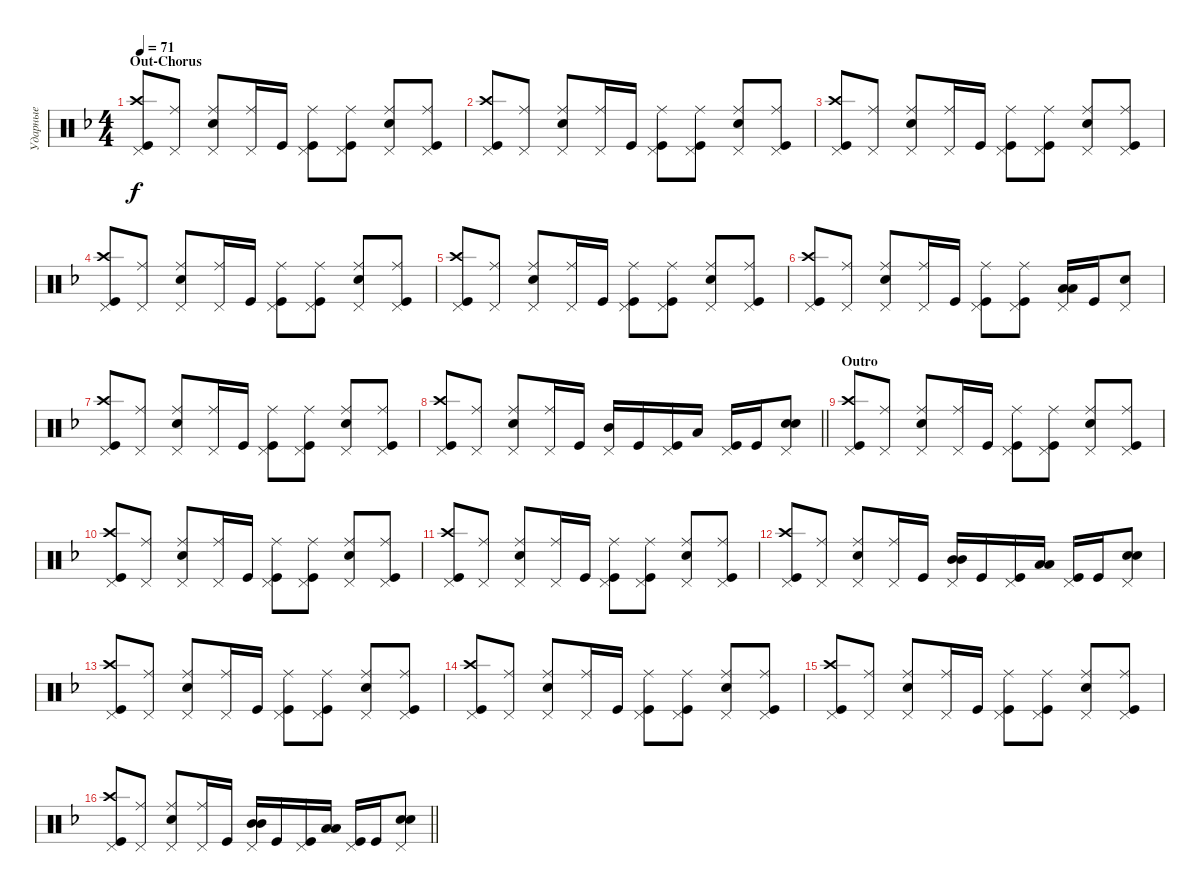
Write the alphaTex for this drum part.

\track ("Ударные" "Ударные") {instrument percussion}
\staff {score}
\articulation defaults
\ts (4 4)
\section ("" "Out-Chorus")
\tempo 71
\clef neutral
\ks dminor
("Kick (hit)" "Crash high (hit)" "Pedal Hi-Hat (hit)").8{dy f} ("Pedal Hi-Hat (hit)" "Ride (middle)").8 ("Snare (hit) 2" "Pedal Hi-Hat (hit)" "Ride (middle)").8 ("Pedal Hi-Hat (hit)" "Ride (middle)").16 "Kick (hit)".16 ("Pedal Hi-Hat (hit)" "Kick (hit)" "Ride (middle)").8 ("Pedal Hi-Hat (hit)" "Kick (hit)" "Ride (middle)").8 ("Pedal Hi-Hat (hit)" "Snare (hit) 2" "Ride (middle)").8 ("Pedal Hi-Hat (hit)" "Kick (hit)" "Ride (middle)").8 |
("Kick (hit)" "Crash high (hit)" "Pedal Hi-Hat (hit)").8 ("Pedal Hi-Hat (hit)" "Ride (middle)").8 ("Snare (hit) 2" "Pedal Hi-Hat (hit)" "Ride (middle)").8 ("Pedal Hi-Hat (hit)" "Ride (middle)").16 "Kick (hit)".16 ("Pedal Hi-Hat (hit)" "Kick (hit)" "Ride (middle)").8 ("Pedal Hi-Hat (hit)" "Kick (hit)" "Ride (middle)").8 ("Pedal Hi-Hat (hit)" "Snare (hit) 2" "Ride (middle)").8 ("Pedal Hi-Hat (hit)" "Kick (hit)" "Ride (middle)").8 |
("Kick (hit)" "Crash high (hit)" "Pedal Hi-Hat (hit)").8 ("Pedal Hi-Hat (hit)" "Ride (middle)").8 ("Snare (hit) 2" "Pedal Hi-Hat (hit)" "Ride (middle)").8 ("Pedal Hi-Hat (hit)" "Ride (middle)").16 "Kick (hit)".16 ("Pedal Hi-Hat (hit)" "Kick (hit)" "Ride (middle)").8 ("Pedal Hi-Hat (hit)" "Kick (hit)" "Ride (middle)").8 ("Pedal Hi-Hat (hit)" "Snare (hit) 2" "Ride (middle)").8 ("Pedal Hi-Hat (hit)" "Kick (hit)" "Ride (middle)").8 |
("Kick (hit)" "Crash high (hit)" "Pedal Hi-Hat (hit)").8 ("Pedal Hi-Hat (hit)" "Ride (middle)").8 ("Snare (hit) 2" "Pedal Hi-Hat (hit)" "Ride (middle)").8 ("Pedal Hi-Hat (hit)" "Ride (middle)").16 "Kick (hit)".16 ("Pedal Hi-Hat (hit)" "Kick (hit)" "Ride (middle)").8 ("Pedal Hi-Hat (hit)" "Kick (hit)" "Ride (middle)").8 ("Pedal Hi-Hat (hit)" "Snare (hit) 2" "Ride (middle)").8 ("Pedal Hi-Hat (hit)" "Kick (hit)" "Ride (middle)").8 |
("Kick (hit)" "Crash high (hit)" "Pedal Hi-Hat (hit)").8 ("Pedal Hi-Hat (hit)" "Ride (middle)").8 ("Snare (hit) 2" "Pedal Hi-Hat (hit)" "Ride (middle)").8 ("Pedal Hi-Hat (hit)" "Ride (middle)").16 "Kick (hit)".16 ("Pedal Hi-Hat (hit)" "Kick (hit)" "Ride (middle)").8 ("Pedal Hi-Hat (hit)" "Kick (hit)" "Ride (middle)").8 ("Pedal Hi-Hat (hit)" "Snare (hit) 2" "Ride (middle)").8 ("Pedal Hi-Hat (hit)" "Kick (hit)" "Ride (middle)").8 |
("Kick (hit)" "Crash high (hit)" "Pedal Hi-Hat (hit)").8 ("Pedal Hi-Hat (hit)" "Ride (middle)").8 ("Snare (hit) 2" "Pedal Hi-Hat (hit)" "Ride (middle)").8 ("Pedal Hi-Hat (hit)" "Ride (middle)").16 "Kick (hit)".16 ("Pedal Hi-Hat (hit)" "Kick (hit)" "Ride (middle)").8 ("Pedal Hi-Hat (hit)" "Kick (hit)" "Ride (middle)").8 ("Low Tom (hit)" "Low Tom (hit)" "Pedal Hi-Hat (hit)").16{bd 60} "Kick (hit)".16 ("Snare (hit) 2" "Pedal Hi-Hat (hit)").8 |
("Kick (hit)" "Crash high (hit)" "Pedal Hi-Hat (hit)").8 ("Pedal Hi-Hat (hit)" "Ride (middle)").8 ("Snare (hit) 2" "Pedal Hi-Hat (hit)" "Ride (middle)").8 ("Pedal Hi-Hat (hit)" "Ride (middle)").16 "Kick (hit)".16 ("Pedal Hi-Hat (hit)" "Kick (hit)" "Ride (middle)").8 ("Pedal Hi-Hat (hit)" "Kick (hit)" "Ride (middle)").8 ("Pedal Hi-Hat (hit)" "Snare (hit) 2" "Ride (middle)").8 ("Pedal Hi-Hat (hit)" "Kick (hit)" "Ride (middle)").8 |
\barLineRight lightlight
("Kick (hit)" "Crash high (hit)" "Pedal Hi-Hat (hit)").8 ("Ride (middle)" "Pedal Hi-Hat (hit)").8 ("Snare (hit) 2" "Ride (middle)" "Pedal Hi-Hat (hit)").8 ("Ride (middle)" "Pedal Hi-Hat (hit)").16 "Kick (hit)".16 ("Mid Tom (hit)" "Pedal Hi-Hat (hit)").16 "Kick (hit)".16 ("Kick (hit)" "Pedal Hi-Hat (hit)").16 "Low Tom (hit)".16 ("Kick (hit)" "Pedal Hi-Hat (hit)").16 "Kick (hit)".16 ("Snare (hit) 2" "Snare (hit) 2" "Pedal Hi-Hat (hit)").8{bd 60} |
\section ("" "Outro")
("Kick (hit)" "Crash high (hit)" "Pedal Hi-Hat (hit)").8 ("Pedal Hi-Hat (hit)" "Ride (middle)").8 ("Snare (hit) 2" "Pedal Hi-Hat (hit)" "Ride (middle)").8 ("Pedal Hi-Hat (hit)" "Ride (middle)").16 "Kick (hit)".16 ("Pedal Hi-Hat (hit)" "Kick (hit)" "Ride (middle)").8 ("Pedal Hi-Hat (hit)" "Kick (hit)" "Ride (middle)").8 ("Pedal Hi-Hat (hit)" "Snare (hit) 2" "Ride (middle)").8 ("Pedal Hi-Hat (hit)" "Kick (hit)" "Ride (middle)").8 |
("Kick (hit)" "Crash high (hit)" "Pedal Hi-Hat (hit)").8 ("Pedal Hi-Hat (hit)" "Ride (middle)").8 ("Snare (hit) 2" "Pedal Hi-Hat (hit)" "Ride (middle)").8 ("Pedal Hi-Hat (hit)" "Ride (middle)").16 "Kick (hit)".16 ("Pedal Hi-Hat (hit)" "Kick (hit)" "Ride (middle)").8 ("Pedal Hi-Hat (hit)" "Kick (hit)" "Ride (middle)").8 ("Pedal Hi-Hat (hit)" "Snare (hit) 2" "Ride (middle)").8 ("Pedal Hi-Hat (hit)" "Kick (hit)" "Ride (middle)").8 |
("Kick (hit)" "Crash high (hit)" "Pedal Hi-Hat (hit)").8 ("Pedal Hi-Hat (hit)" "Ride (middle)").8 ("Snare (hit) 2" "Pedal Hi-Hat (hit)" "Ride (middle)").8 ("Pedal Hi-Hat (hit)" "Ride (middle)").16 "Kick (hit)".16 ("Pedal Hi-Hat (hit)" "Kick (hit)" "Ride (middle)").8 ("Pedal Hi-Hat (hit)" "Kick (hit)" "Ride (middle)").8 ("Pedal Hi-Hat (hit)" "Snare (hit) 2" "Ride (middle)").8 ("Pedal Hi-Hat (hit)" "Kick (hit)" "Ride (middle)").8 |
("Kick (hit)" "Crash high (hit)" "Pedal Hi-Hat (hit)").8 ("Pedal Hi-Hat (hit)" "Ride (middle)").8 ("Snare (hit) 2" "Pedal Hi-Hat (hit)" "Ride (middle)").8 ("Pedal Hi-Hat (hit)" "Ride (middle)").16 "Kick (hit)".16 ("Mid Tom (hit)" "Mid Tom (hit)" "Pedal Hi-Hat (hit)").16{bd 60} "Kick (hit)".16 ("Kick (hit)" "Pedal Hi-Hat (hit)").16 ("Low Tom (hit)" "Low Tom (hit)").16{bd 60} ("Kick (hit)" "Pedal Hi-Hat (hit)").16 "Kick (hit)".16 ("Snare (hit) 2" "Snare (hit) 2" "Pedal Hi-Hat (hit)").8{bd 60} |
("Kick (hit)" "Crash high (hit)" "Pedal Hi-Hat (hit)").8{volume 0} ("Pedal Hi-Hat (hit)" "Ride (middle)").8 ("Snare (hit) 2" "Pedal Hi-Hat (hit)" "Ride (middle)").8 ("Pedal Hi-Hat (hit)" "Ride (middle)").16 "Kick (hit)".16 ("Pedal Hi-Hat (hit)" "Kick (hit)" "Ride (middle)").8 ("Pedal Hi-Hat (hit)" "Kick (hit)" "Ride (middle)").8 ("Pedal Hi-Hat (hit)" "Snare (hit) 2" "Ride (middle)").8 ("Pedal Hi-Hat (hit)" "Kick (hit)" "Ride (middle)").8 |
("Kick (hit)" "Crash high (hit)" "Pedal Hi-Hat (hit)").8 ("Pedal Hi-Hat (hit)" "Ride (middle)").8 ("Snare (hit) 2" "Pedal Hi-Hat (hit)" "Ride (middle)").8 ("Pedal Hi-Hat (hit)" "Ride (middle)").16 "Kick (hit)".16 ("Pedal Hi-Hat (hit)" "Kick (hit)" "Ride (middle)").8 ("Pedal Hi-Hat (hit)" "Kick (hit)" "Ride (middle)").8 ("Pedal Hi-Hat (hit)" "Snare (hit) 2" "Ride (middle)").8 ("Pedal Hi-Hat (hit)" "Kick (hit)" "Ride (middle)").8 |
("Kick (hit)" "Crash high (hit)" "Pedal Hi-Hat (hit)").8 ("Pedal Hi-Hat (hit)" "Ride (middle)").8 ("Snare (hit) 2" "Pedal Hi-Hat (hit)" "Ride (middle)").8 ("Pedal Hi-Hat (hit)" "Ride (middle)").16 "Kick (hit)".16 ("Pedal Hi-Hat (hit)" "Kick (hit)" "Ride (middle)").8 ("Pedal Hi-Hat (hit)" "Kick (hit)" "Ride (middle)").8 ("Pedal Hi-Hat (hit)" "Snare (hit) 2" "Ride (middle)").8 ("Pedal Hi-Hat (hit)" "Kick (hit)" "Ride (middle)").8 |
\barLineRight lightlight
("Kick (hit)" "Crash high (hit)" "Pedal Hi-Hat (hit)").8 ("Pedal Hi-Hat (hit)" "Ride (middle)").8 ("Snare (hit) 2" "Pedal Hi-Hat (hit)" "Ride (middle)").8 ("Pedal Hi-Hat (hit)" "Ride (middle)").16 "Kick (hit)".16 ("Mid Tom (hit)" "Mid Tom (hit)" "Pedal Hi-Hat (hit)").16{bd 60} "Kick (hit)".16 ("Kick (hit)" "Pedal Hi-Hat (hit)").16 ("Low Tom (hit)" "Low Tom (hit)").16{bd 60} ("Kick (hit)" "Pedal Hi-Hat (hit)").16 "Kick (hit)".16 ("Snare (hit) 2" "Snare (hit) 2" "Pedal Hi-Hat (hit)").8{bd 60}
